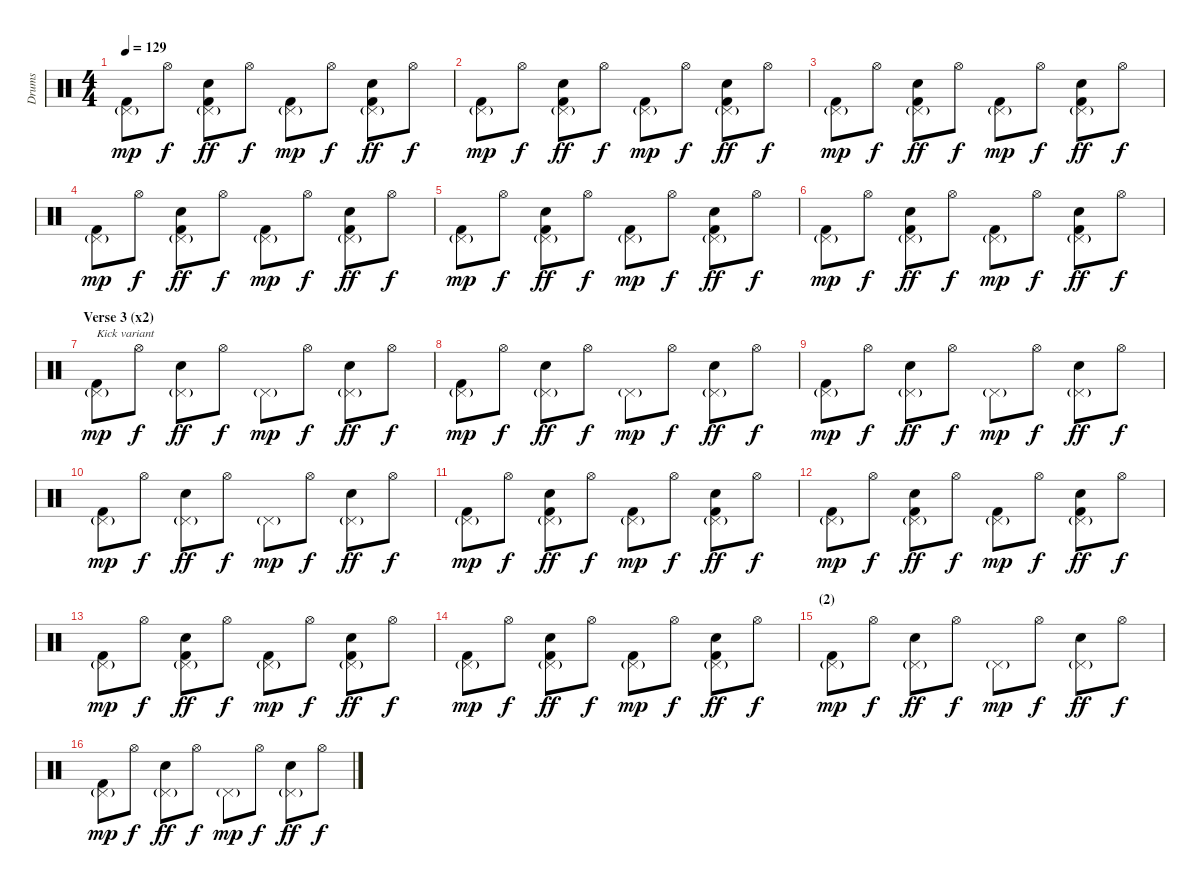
\track ("Drums" "Drums") {instrument percussion}
\staff {score}
\articulation defaults
\ts (4 4)
\tempo 129
\clef neutral
\ks c
("Pedal Hi-Hat (hit)"{g} "Kick (hit) 2").8{dy mp} "Hi-Hat (open)".8{dy f} ("Pedal Hi-Hat (hit)"{g} "Electric Snare (hit)" "Kick (hit) 2").8{dy ff} "Hi-Hat (open)".8{dy f} ("Pedal Hi-Hat (hit)"{g} "Kick (hit) 2").8{dy mp} "Hi-Hat (open)".8{dy f} ("Pedal Hi-Hat (hit)"{g} "Electric Snare (hit)" "Kick (hit) 2").8{dy ff} "Hi-Hat (open)".8{dy f} |
("Pedal Hi-Hat (hit)"{g} "Kick (hit) 2").8{dy mp} "Hi-Hat (open)".8{dy f} ("Pedal Hi-Hat (hit)"{g} "Electric Snare (hit)" "Kick (hit) 2").8{dy ff} "Hi-Hat (open)".8{dy f} ("Pedal Hi-Hat (hit)"{g} "Kick (hit) 2").8{dy mp} "Hi-Hat (open)".8{dy f} ("Pedal Hi-Hat (hit)"{g} "Electric Snare (hit)" "Kick (hit) 2").8{dy ff} "Hi-Hat (open)".8{dy f} |
("Pedal Hi-Hat (hit)"{g} "Kick (hit) 2").8{dy mp} "Hi-Hat (open)".8{dy f} ("Pedal Hi-Hat (hit)"{g} "Electric Snare (hit)" "Kick (hit) 2").8{dy ff} "Hi-Hat (open)".8{dy f} ("Pedal Hi-Hat (hit)"{g} "Kick (hit) 2").8{dy mp} "Hi-Hat (open)".8{dy f} ("Pedal Hi-Hat (hit)"{g} "Electric Snare (hit)" "Kick (hit) 2").8{dy ff} "Hi-Hat (open)".8{dy f} |
("Pedal Hi-Hat (hit)"{g} "Kick (hit) 2").8{dy mp} "Hi-Hat (open)".8{dy f} ("Pedal Hi-Hat (hit)"{g} "Electric Snare (hit)" "Kick (hit) 2").8{dy ff} "Hi-Hat (open)".8{dy f} ("Pedal Hi-Hat (hit)"{g} "Kick (hit) 2").8{dy mp} "Hi-Hat (open)".8{dy f} ("Pedal Hi-Hat (hit)"{g} "Electric Snare (hit)" "Kick (hit) 2").8{dy ff} "Hi-Hat (open)".8{dy f} |
("Pedal Hi-Hat (hit)"{g} "Kick (hit) 2").8{dy mp} "Hi-Hat (open)".8{dy f} ("Pedal Hi-Hat (hit)"{g} "Electric Snare (hit)" "Kick (hit) 2").8{dy ff} "Hi-Hat (open)".8{dy f} ("Pedal Hi-Hat (hit)"{g} "Kick (hit) 2").8{dy mp} "Hi-Hat (open)".8{dy f} ("Pedal Hi-Hat (hit)"{g} "Electric Snare (hit)" "Kick (hit) 2").8{dy ff} "Hi-Hat (open)".8{dy f} |
("Pedal Hi-Hat (hit)"{g} "Kick (hit) 2").8{dy mp} "Hi-Hat (open)".8{dy f} ("Pedal Hi-Hat (hit)"{g} "Electric Snare (hit)" "Kick (hit) 2").8{dy ff} "Hi-Hat (open)".8{dy f} ("Pedal Hi-Hat (hit)"{g} "Kick (hit) 2").8{dy mp} "Hi-Hat (open)".8{dy f} ("Pedal Hi-Hat (hit)"{g} "Electric Snare (hit)" "Kick (hit) 2").8{dy ff} "Hi-Hat (open)".8{dy f} |
\section ("" "Verse 3 (x2)")
("Pedal Hi-Hat (hit)"{g} "Kick (hit) 2").8{txt "Kick variant" dy mp} "Hi-Hat (open)".8{dy f} ("Pedal Hi-Hat (hit)"{g} "Electric Snare (hit)").8{dy ff} "Hi-Hat (open)".8{dy f} "Pedal Hi-Hat (hit)"{g}.8{dy mp} "Hi-Hat (open)".8{dy f} ("Pedal Hi-Hat (hit)"{g} "Electric Snare (hit)").8{dy ff} "Hi-Hat (open)".8{dy f} |
("Pedal Hi-Hat (hit)"{g} "Kick (hit) 2").8{dy mp} "Hi-Hat (open)".8{dy f} ("Pedal Hi-Hat (hit)"{g} "Electric Snare (hit)").8{dy ff} "Hi-Hat (open)".8{dy f} "Pedal Hi-Hat (hit)"{g}.8{dy mp} "Hi-Hat (open)".8{dy f} ("Pedal Hi-Hat (hit)"{g} "Electric Snare (hit)").8{dy ff} "Hi-Hat (open)".8{dy f} |
("Pedal Hi-Hat (hit)"{g} "Kick (hit) 2").8{dy mp} "Hi-Hat (open)".8{dy f} ("Pedal Hi-Hat (hit)"{g} "Electric Snare (hit)").8{dy ff} "Hi-Hat (open)".8{dy f} "Pedal Hi-Hat (hit)"{g}.8{dy mp} "Hi-Hat (open)".8{dy f} ("Pedal Hi-Hat (hit)"{g} "Electric Snare (hit)").8{dy ff} "Hi-Hat (open)".8{dy f} |
("Pedal Hi-Hat (hit)"{g} "Kick (hit) 2").8{dy mp} "Hi-Hat (open)".8{dy f} ("Pedal Hi-Hat (hit)"{g} "Electric Snare (hit)").8{dy ff} "Hi-Hat (open)".8{dy f} "Pedal Hi-Hat (hit)"{g}.8{dy mp} "Hi-Hat (open)".8{dy f} ("Pedal Hi-Hat (hit)"{g} "Electric Snare (hit)").8{dy ff} "Hi-Hat (open)".8{dy f} |
("Pedal Hi-Hat (hit)"{g} "Kick (hit) 2").8{dy mp} "Hi-Hat (open)".8{dy f} ("Pedal Hi-Hat (hit)"{g} "Electric Snare (hit)" "Kick (hit) 2").8{dy ff} "Hi-Hat (open)".8{dy f} ("Pedal Hi-Hat (hit)"{g} "Kick (hit) 2").8{dy mp} "Hi-Hat (open)".8{dy f} ("Pedal Hi-Hat (hit)"{g} "Electric Snare (hit)" "Kick (hit) 2").8{dy ff} "Hi-Hat (open)".8{dy f} |
("Pedal Hi-Hat (hit)"{g} "Kick (hit) 2").8{dy mp} "Hi-Hat (open)".8{dy f} ("Pedal Hi-Hat (hit)"{g} "Electric Snare (hit)" "Kick (hit) 2").8{dy ff} "Hi-Hat (open)".8{dy f} ("Pedal Hi-Hat (hit)"{g} "Kick (hit) 2").8{dy mp} "Hi-Hat (open)".8{dy f} ("Pedal Hi-Hat (hit)"{g} "Electric Snare (hit)" "Kick (hit) 2").8{dy ff} "Hi-Hat (open)".8{dy f} |
("Pedal Hi-Hat (hit)"{g} "Kick (hit) 2").8{dy mp} "Hi-Hat (open)".8{dy f} ("Pedal Hi-Hat (hit)"{g} "Electric Snare (hit)" "Kick (hit) 2").8{dy ff} "Hi-Hat (open)".8{dy f} ("Pedal Hi-Hat (hit)"{g} "Kick (hit) 2").8{dy mp} "Hi-Hat (open)".8{dy f} ("Pedal Hi-Hat (hit)"{g} "Electric Snare (hit)" "Kick (hit) 2").8{dy ff} "Hi-Hat (open)".8{dy f} |
("Pedal Hi-Hat (hit)"{g} "Kick (hit) 2").8{dy mp} "Hi-Hat (open)".8{dy f} ("Pedal Hi-Hat (hit)"{g} "Electric Snare (hit)" "Kick (hit) 2").8{dy ff} "Hi-Hat (open)".8{dy f} ("Pedal Hi-Hat (hit)"{g} "Kick (hit) 2").8{dy mp} "Hi-Hat (open)".8{dy f} ("Pedal Hi-Hat (hit)"{g} "Electric Snare (hit)" "Kick (hit) 2").8{dy ff} "Hi-Hat (open)".8{dy f} |
\section ("" "(2)")
("Pedal Hi-Hat (hit)"{g} "Kick (hit) 2").8{dy mp} "Hi-Hat (open)".8{dy f} ("Pedal Hi-Hat (hit)"{g} "Electric Snare (hit)").8{dy ff} "Hi-Hat (open)".8{dy f} "Pedal Hi-Hat (hit)"{g}.8{dy mp} "Hi-Hat (open)".8{dy f} ("Pedal Hi-Hat (hit)"{g} "Electric Snare (hit)").8{dy ff} "Hi-Hat (open)".8{dy f} |
("Pedal Hi-Hat (hit)"{g} "Kick (hit) 2").8{dy mp} "Hi-Hat (open)".8{dy f} ("Pedal Hi-Hat (hit)"{g} "Electric Snare (hit)").8{dy ff} "Hi-Hat (open)".8{dy f} "Pedal Hi-Hat (hit)"{g}.8{dy mp} "Hi-Hat (open)".8{dy f} ("Pedal Hi-Hat (hit)"{g} "Electric Snare (hit)").8{dy ff} "Hi-Hat (open)".8{dy f}
